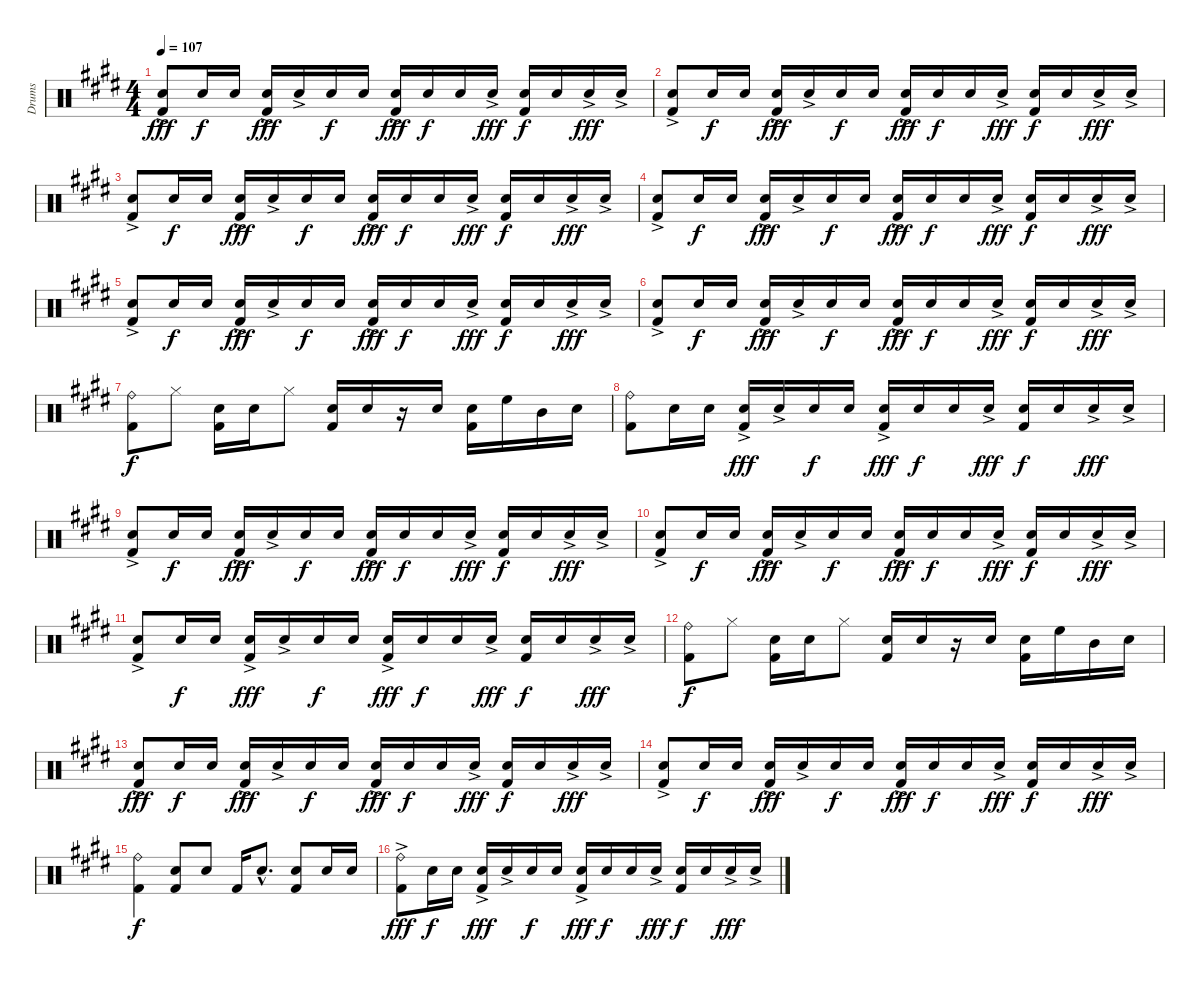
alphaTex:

\track ("Drums" "Drums") {instrument percussion}
\staff {score}
\articulation defaults
\ts (4 4)
\tempo 107
\clef neutral
\ks c#minor
("Electric Snare (hit)"{ac} "Kick (hit) 2").8{dy fff} "Electric Snare (hit)".16{dy f} "Electric Snare (hit)".16 ("Electric Snare (hit)"{ac} "Kick (hit) 2").16{dy fff} "Electric Snare (hit)"{ac}.16 "Electric Snare (hit)".16{dy f} "Electric Snare (hit)".16 ("Electric Snare (hit)"{ac} "Kick (hit) 2").16{dy fff} "Electric Snare (hit)".16{dy f} "Electric Snare (hit)".16 "Electric Snare (hit)"{ac}.16{dy fff} ("Electric Snare (hit)" "Kick (hit) 2").16{dy f} "Electric Snare (hit)".16 "Electric Snare (hit)"{ac}.16{dy fff} "Electric Snare (hit)"{ac}.16 |
("Electric Snare (hit)"{ac} "Kick (hit) 2").8 "Electric Snare (hit)".16{dy f} "Electric Snare (hit)".16 ("Electric Snare (hit)"{ac} "Kick (hit) 2").16{dy fff} "Electric Snare (hit)"{ac}.16 "Electric Snare (hit)".16{dy f} "Electric Snare (hit)".16 ("Electric Snare (hit)"{ac} "Kick (hit) 2").16{dy fff} "Electric Snare (hit)".16{dy f} "Electric Snare (hit)".16 "Electric Snare (hit)"{ac}.16{dy fff} ("Electric Snare (hit)" "Kick (hit) 2").16{dy f} "Electric Snare (hit)".16 "Electric Snare (hit)"{ac}.16{dy fff} "Electric Snare (hit)"{ac}.16 |
("Electric Snare (hit)"{ac} "Kick (hit) 2").8 "Electric Snare (hit)".16{dy f} "Electric Snare (hit)".16 ("Electric Snare (hit)"{ac} "Kick (hit) 2").16{dy fff} "Electric Snare (hit)"{ac}.16 "Electric Snare (hit)".16{dy f} "Electric Snare (hit)".16 ("Electric Snare (hit)"{ac} "Kick (hit) 2").16{dy fff} "Electric Snare (hit)".16{dy f} "Electric Snare (hit)".16 "Electric Snare (hit)"{ac}.16{dy fff} ("Electric Snare (hit)" "Kick (hit) 2").16{dy f} "Electric Snare (hit)".16 "Electric Snare (hit)"{ac}.16{dy fff} "Electric Snare (hit)"{ac}.16 |
("Electric Snare (hit)"{ac} "Kick (hit) 2").8 "Electric Snare (hit)".16{dy f} "Electric Snare (hit)".16 ("Electric Snare (hit)"{ac} "Kick (hit) 2").16{dy fff} "Electric Snare (hit)"{ac}.16 "Electric Snare (hit)".16{dy f} "Electric Snare (hit)".16 ("Electric Snare (hit)"{ac} "Kick (hit) 2").16{dy fff} "Electric Snare (hit)".16{dy f} "Electric Snare (hit)".16 "Electric Snare (hit)"{ac}.16{dy fff} ("Electric Snare (hit)" "Kick (hit) 2").16{dy f} "Electric Snare (hit)".16 "Electric Snare (hit)"{ac}.16{dy fff} "Electric Snare (hit)"{ac}.16 |
("Electric Snare (hit)"{ac} "Kick (hit) 2").8 "Electric Snare (hit)".16{dy f} "Electric Snare (hit)".16 ("Electric Snare (hit)"{ac} "Kick (hit) 2").16{dy fff} "Electric Snare (hit)"{ac}.16 "Electric Snare (hit)".16{dy f} "Electric Snare (hit)".16 ("Electric Snare (hit)"{ac} "Kick (hit) 2").16{dy fff} "Electric Snare (hit)".16{dy f} "Electric Snare (hit)".16 "Electric Snare (hit)"{ac}.16{dy fff} ("Electric Snare (hit)" "Kick (hit) 2").16{dy f} "Electric Snare (hit)".16 "Electric Snare (hit)"{ac}.16{dy fff} "Electric Snare (hit)"{ac}.16 |
("Electric Snare (hit)"{ac} "Kick (hit) 2").8 "Electric Snare (hit)".16{dy f} "Electric Snare (hit)".16 ("Electric Snare (hit)"{ac} "Kick (hit) 2").16{dy fff} "Electric Snare (hit)"{ac}.16 "Electric Snare (hit)".16{dy f} "Electric Snare (hit)".16 ("Electric Snare (hit)"{ac} "Kick (hit) 2").16{dy fff} "Electric Snare (hit)".16{dy f} "Electric Snare (hit)".16 "Electric Snare (hit)"{ac}.16{dy fff} ("Electric Snare (hit)" "Kick (hit) 2").16{dy f} "Electric Snare (hit)".16 "Electric Snare (hit)"{ac}.16{dy fff} "Electric Snare (hit)"{ac}.16 |
("Ride (bell)" "Kick (hit) 2").8{dy f} "Hi-Hat (closed)".8 ("Electric Snare (hit)" "Kick (hit) 2").16 "Electric Snare (hit)".16 "Hi-Hat (closed)".8 ("Electric Snare (hit)" "Kick (hit) 2").16 "Electric Snare (hit)".16 r.16 "Electric Snare (hit)".16 ("Electric Snare (hit)" "Kick (hit) 2").16 "High Floor Tom (hit)".16 "Mid Tom (hit)".16 "Snare (hit) 2".16 |
("Ride (bell)" "Kick (hit) 2").8 "Electric Snare (hit)".16 "Electric Snare (hit)".16 ("Electric Snare (hit)"{ac} "Kick (hit) 2").16{dy fff} "Electric Snare (hit)"{ac}.16 "Electric Snare (hit)".16{dy f} "Electric Snare (hit)".16 ("Electric Snare (hit)"{ac} "Kick (hit) 2").16{dy fff} "Electric Snare (hit)".16{dy f} "Electric Snare (hit)".16 "Electric Snare (hit)"{ac}.16{dy fff} ("Electric Snare (hit)" "Kick (hit) 2").16{dy f} "Electric Snare (hit)".16 "Electric Snare (hit)"{ac}.16{dy fff} "Electric Snare (hit)"{ac}.16 |
("Electric Snare (hit)"{ac} "Kick (hit) 2").8 "Electric Snare (hit)".16{dy f} "Electric Snare (hit)".16 ("Electric Snare (hit)"{ac} "Kick (hit) 2").16{dy fff} "Electric Snare (hit)"{ac}.16 "Electric Snare (hit)".16{dy f} "Electric Snare (hit)".16 ("Electric Snare (hit)"{ac} "Kick (hit) 2").16{dy fff} "Electric Snare (hit)".16{dy f} "Electric Snare (hit)".16 "Electric Snare (hit)"{ac}.16{dy fff} ("Electric Snare (hit)" "Kick (hit) 2").16{dy f} "Electric Snare (hit)".16 "Electric Snare (hit)"{ac}.16{dy fff} "Electric Snare (hit)"{ac}.16 |
("Electric Snare (hit)"{ac} "Kick (hit) 2").8 "Electric Snare (hit)".16{dy f} "Electric Snare (hit)".16 ("Electric Snare (hit)"{ac} "Kick (hit) 2").16{dy fff} "Electric Snare (hit)"{ac}.16 "Electric Snare (hit)".16{dy f} "Electric Snare (hit)".16 ("Electric Snare (hit)"{ac} "Kick (hit) 2").16{dy fff} "Electric Snare (hit)".16{dy f} "Electric Snare (hit)".16 "Electric Snare (hit)"{ac}.16{dy fff} ("Electric Snare (hit)" "Kick (hit) 2").16{dy f} "Electric Snare (hit)".16 "Electric Snare (hit)"{ac}.16{dy fff} "Electric Snare (hit)"{ac}.16 |
("Electric Snare (hit)"{ac} "Kick (hit) 2").8 "Electric Snare (hit)".16{dy f} "Electric Snare (hit)".16 ("Electric Snare (hit)"{ac} "Kick (hit) 2").16{dy fff} "Electric Snare (hit)"{ac}.16 "Electric Snare (hit)".16{dy f} "Electric Snare (hit)".16 ("Electric Snare (hit)"{ac} "Kick (hit) 2").16{dy fff} "Electric Snare (hit)".16{dy f} "Electric Snare (hit)".16 "Electric Snare (hit)"{ac}.16{dy fff} ("Electric Snare (hit)" "Kick (hit) 2").16{dy f} "Electric Snare (hit)".16 "Electric Snare (hit)"{ac}.16{dy fff} "Electric Snare (hit)"{ac}.16 |
("Ride (bell)" "Kick (hit) 2").8{dy f} "Hi-Hat (closed)".8 ("Electric Snare (hit)" "Kick (hit) 2").16 "Electric Snare (hit)".16 "Hi-Hat (closed)".8 ("Electric Snare (hit)" "Kick (hit) 2").16 "Electric Snare (hit)".16 r.16 "Electric Snare (hit)".16 ("Electric Snare (hit)" "Kick (hit) 2").16 "High Floor Tom (hit)".16 "Mid Tom (hit)".16 "Snare (hit) 2".16 |
("Electric Snare (hit)"{ac} "Kick (hit) 2").8{dy fff} "Electric Snare (hit)".16{dy f} "Electric Snare (hit)".16 ("Electric Snare (hit)"{ac} "Kick (hit) 2").16{dy fff} "Electric Snare (hit)"{ac}.16 "Electric Snare (hit)".16{dy f} "Electric Snare (hit)".16 ("Electric Snare (hit)"{ac} "Kick (hit) 2").16{dy fff} "Electric Snare (hit)".16{dy f} "Electric Snare (hit)".16 "Electric Snare (hit)"{ac}.16{dy fff} ("Electric Snare (hit)" "Kick (hit) 2").16{dy f} "Electric Snare (hit)".16 "Electric Snare (hit)"{ac}.16{dy fff} "Electric Snare (hit)"{ac}.16 |
("Electric Snare (hit)"{ac} "Kick (hit) 2").8 "Electric Snare (hit)".16{dy f} "Electric Snare (hit)".16 ("Electric Snare (hit)"{ac} "Kick (hit) 2").16{dy fff} "Electric Snare (hit)"{ac}.16 "Electric Snare (hit)".16{dy f} "Electric Snare (hit)".16 ("Electric Snare (hit)"{ac} "Kick (hit) 2").16{dy fff} "Electric Snare (hit)".16{dy f} "Electric Snare (hit)".16 "Electric Snare (hit)"{ac}.16{dy fff} ("Electric Snare (hit)" "Kick (hit) 2").16{dy f} "Electric Snare (hit)".16 "Electric Snare (hit)"{ac}.16{dy fff} "Electric Snare (hit)"{ac}.16 |
("Ride (bell)" "Kick (hit) 2").4{dy f} ("Electric Snare (hit)" "Kick (hit) 2").8 "Electric Snare (hit)".8 "Kick (hit) 2".16 "Electric Snare (hit)"{hac}.8{d} ("Electric Snare (hit)" "Kick (hit) 2").8 "Electric Snare (hit)".16 "Electric Snare (hit)".16 |
("Ride (bell)"{ac} "Kick (hit) 2").8{dy fff} "Electric Snare (hit)".16{dy f} "Electric Snare (hit)".16 ("Electric Snare (hit)"{ac} "Kick (hit) 2").16{dy fff} "Electric Snare (hit)"{ac}.16 "Electric Snare (hit)".16{dy f} "Electric Snare (hit)".16 ("Electric Snare (hit)"{ac} "Kick (hit) 2").16{dy fff} "Electric Snare (hit)".16{dy f} "Electric Snare (hit)".16 "Electric Snare (hit)"{ac}.16{dy fff} ("Electric Snare (hit)" "Kick (hit) 2").16{dy f} "Electric Snare (hit)".16 "Electric Snare (hit)"{ac}.16{dy fff} "Electric Snare (hit)"{ac}.16
